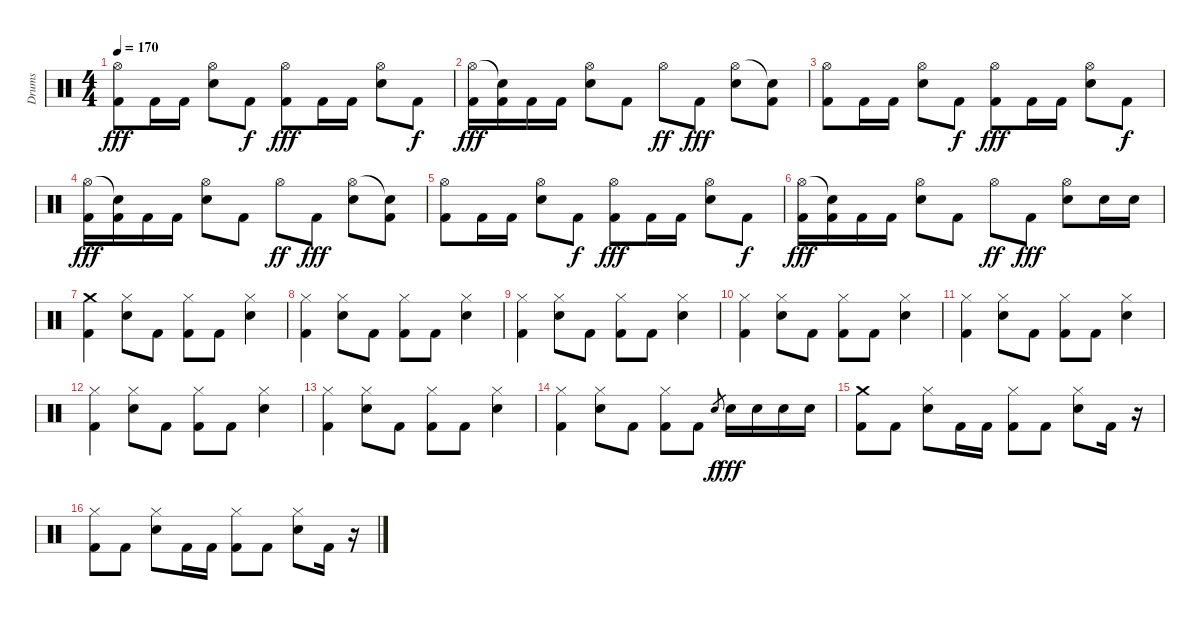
\track ("Drums" "Drums") {instrument percussion}
\staff {score}
\articulation defaults
\ts (4 4)
\tempo 170
\clef neutral
\ks c
("Hi-Hat (open)" "Kick (hit) 2").8{dy fff} "Kick (hit) 2".16 "Kick (hit) 2".16 ("Hi-Hat (open)" "Snare (hit) 2").8 "Kick (hit) 2".8{dy f} ("Hi-Hat (open)" "Kick (hit) 2").8{dy fff} "Kick (hit) 2".16 "Kick (hit) 2".16 ("Hi-Hat (open)" "Snare (hit) 2").8 "Kick (hit) 2".8{dy f} |
("Hi-Hat (open)" "Kick (hit) 2").16{dy fff} ("Snare (hit)"{t} "Kick (hit) 2").16 "Kick (hit) 2".16 "Kick (hit) 2".16 ("Hi-Hat (open)" "Snare (hit) 2").8 "Kick (hit) 2".8 "Hi-Hat (open)".8{dy ff} "Kick (hit) 2".8{dy fff} ("Hi-Hat (open)" "Snare (hit) 2").8 ("Snare (hit)"{t} "Kick (hit) 2").8 |
("Hi-Hat (open)" "Kick (hit) 2").8 "Kick (hit) 2".16 "Kick (hit) 2".16 ("Hi-Hat (open)" "Snare (hit) 2").8 "Kick (hit) 2".8{dy f} ("Hi-Hat (open)" "Kick (hit) 2").8{dy fff} "Kick (hit) 2".16 "Kick (hit) 2".16 ("Hi-Hat (open)" "Snare (hit) 2").8 "Kick (hit) 2".8{dy f} |
("Hi-Hat (open)" "Kick (hit) 2").16{dy fff} ("Snare (hit)"{t} "Kick (hit) 2").16 "Kick (hit) 2".16 "Kick (hit) 2".16 ("Hi-Hat (open)" "Snare (hit) 2").8 "Kick (hit) 2".8 "Hi-Hat (open)".8{dy ff} "Kick (hit) 2".8{dy fff} ("Hi-Hat (open)" "Snare (hit) 2").8 ("Snare (hit)"{t} "Kick (hit) 2").8 |
("Hi-Hat (open)" "Kick (hit) 2").8 "Kick (hit) 2".16 "Kick (hit) 2".16 ("Hi-Hat (open)" "Snare (hit) 2").8 "Kick (hit) 2".8{dy f} ("Hi-Hat (open)" "Kick (hit) 2").8{dy fff} "Kick (hit) 2".16 "Kick (hit) 2".16 ("Hi-Hat (open)" "Snare (hit) 2").8 "Kick (hit) 2".8{dy f} |
("Hi-Hat (open)" "Kick (hit) 2").16{dy fff} ("Snare (hit)"{t} "Kick (hit) 2").16 "Kick (hit) 2".16 "Kick (hit) 2".16 ("Hi-Hat (open)" "Snare (hit) 2").8 "Kick (hit) 2".8 "Hi-Hat (open)".8{dy ff} "Kick (hit) 2".8{dy fff} ("Hi-Hat (open)" "Snare (hit) 2").8 "Snare (hit) 2".16 "Snare (hit) 2".16 |
("Crash medium (hit)" "Kick (hit) 2").4 ("Hi-Hat (closed)" "Snare (hit) 2").8 "Kick (hit) 2".8 ("Hi-Hat (closed)" "Kick (hit) 2").8 "Kick (hit) 2".8 ("Hi-Hat (closed)" "Snare (hit) 2").4 |
("Hi-Hat (closed)" "Kick (hit) 2").4 ("Hi-Hat (closed)" "Snare (hit) 2").8 "Kick (hit) 2".8 ("Hi-Hat (closed)" "Kick (hit) 2").8 "Kick (hit) 2".8 ("Hi-Hat (closed)" "Snare (hit) 2").4 |
("Hi-Hat (closed)" "Kick (hit) 2").4 ("Hi-Hat (closed)" "Snare (hit) 2").8 "Kick (hit) 2".8 ("Hi-Hat (closed)" "Kick (hit) 2").8 "Kick (hit) 2".8 ("Hi-Hat (closed)" "Snare (hit) 2").4 |
("Hi-Hat (closed)" "Kick (hit) 2").4 ("Hi-Hat (closed)" "Snare (hit) 2").8 "Kick (hit) 2".8 ("Hi-Hat (closed)" "Kick (hit) 2").8 "Kick (hit) 2".8 ("Hi-Hat (closed)" "Snare (hit) 2").4 |
("Hi-Hat (closed)" "Kick (hit) 2").4 ("Hi-Hat (closed)" "Snare (hit) 2").8 "Kick (hit) 2".8 ("Hi-Hat (closed)" "Kick (hit) 2").8 "Kick (hit) 2".8 ("Hi-Hat (closed)" "Snare (hit) 2").4 |
("Hi-Hat (closed)" "Kick (hit) 2").4 ("Hi-Hat (closed)" "Snare (hit) 2").8 "Kick (hit) 2".8 ("Hi-Hat (closed)" "Kick (hit) 2").8 "Kick (hit) 2".8 ("Hi-Hat (closed)" "Snare (hit) 2").4 |
("Hi-Hat (closed)" "Kick (hit) 2").4 ("Hi-Hat (closed)" "Snare (hit) 2").8 "Kick (hit) 2".8 ("Hi-Hat (closed)" "Kick (hit) 2").8 "Kick (hit) 2".8 ("Hi-Hat (closed)" "Snare (hit) 2").4 |
("Hi-Hat (closed)" "Kick (hit) 2").4 ("Hi-Hat (closed)" "Snare (hit) 2").8 "Kick (hit) 2".8 ("Hi-Hat (closed)" "Kick (hit) 2").8 "Kick (hit) 2".8 "Snare (hit) 2".8{gr dy f} "Snare (hit) 2".16{dy fff} "Snare (hit) 2".16 "Snare (hit) 2".16 "Snare (hit) 2".16 |
("Crash medium (hit)" "Kick (hit) 2").8 "Kick (hit) 2".8 ("Hi-Hat (closed)" "Snare (hit) 2").8 "Kick (hit) 2".16 "Kick (hit) 2".16 ("Hi-Hat (closed)" "Kick (hit) 2").8 "Kick (hit) 2".8 ("Hi-Hat (closed)" "Snare (hit) 2").8 "Kick (hit) 2".16 r.16 |
("Hi-Hat (closed)" "Kick (hit) 2").8 "Kick (hit) 2".8 ("Hi-Hat (closed)" "Snare (hit) 2").8 "Kick (hit) 2".16 "Kick (hit) 2".16 ("Hi-Hat (closed)" "Kick (hit) 2").8 "Kick (hit) 2".8 ("Hi-Hat (closed)" "Snare (hit) 2").8 "Kick (hit) 2".16 r.16
